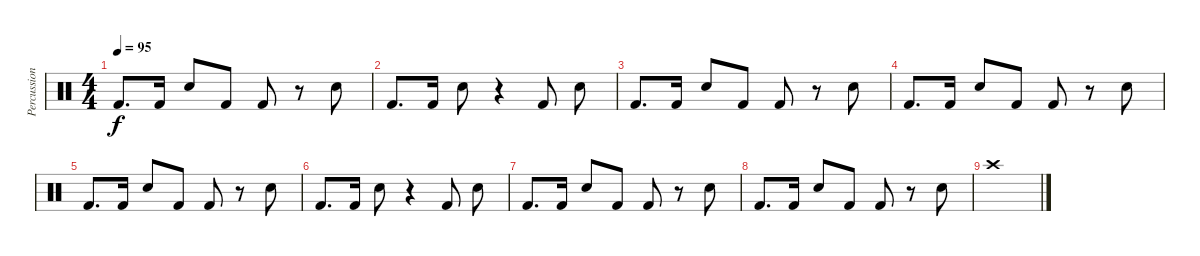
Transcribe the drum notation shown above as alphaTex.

\track ("Percussion" "Percussion") {instrument percussion}
\staff {score}
\articulation defaults
\ts (4 4)
\tempo 95
\clef neutral
\ks c "Kick (hit) 2".8{d dy f} "Kick (hit) 2".16 "Snare (hit) 2".8 "Kick (hit) 2".8 "Kick (hit) 2".8
r.8 "Snare (hit) 2".8 |
"Kick (hit) 2".8{d} "Kick (hit) 2".16 "Snare (hit) 2".8 r.4 "Kick (hit) 2".8 "Snare (hit) 2".8 |
"Kick (hit) 2".8{d} "Kick (hit) 2".16 "Snare (hit) 2".8 "Kick (hit) 2".8 "Kick (hit) 2".8 r.8 "Snare (hit) 2".8 |
"Kick (hit) 2".8{d} "Kick (hit) 2".16 "Snare (hit) 2".8 "Kick (hit) 2".8 "Kick (hit) 2".8 r.8 "Snare (hit) 2".8 |
"Kick (hit) 2".8{d} "Kick (hit) 2".16 "Snare (hit) 2".8 "Kick (hit) 2".8 "Kick (hit) 2".8 r.8 "Snare (hit) 2".8 |
"Kick (hit) 2".8{d} "Kick (hit) 2".16 "Snare (hit) 2".8 r.4 "Kick (hit) 2".8 "Snare (hit) 2".8 |
"Kick (hit) 2".8{d} "Kick (hit) 2".16 "Snare (hit) 2".8 "Kick (hit) 2".8 "Kick (hit) 2".8 r.8 "Snare (hit) 2".8 |
"Kick (hit) 2".8{d} "Kick (hit) 2".16 "Snare (hit) 2".8 "Kick (hit) 2".8 "Kick (hit) 2".8 r.8 "Snare (hit) 2".8 |
"Crash high (hit)".1
